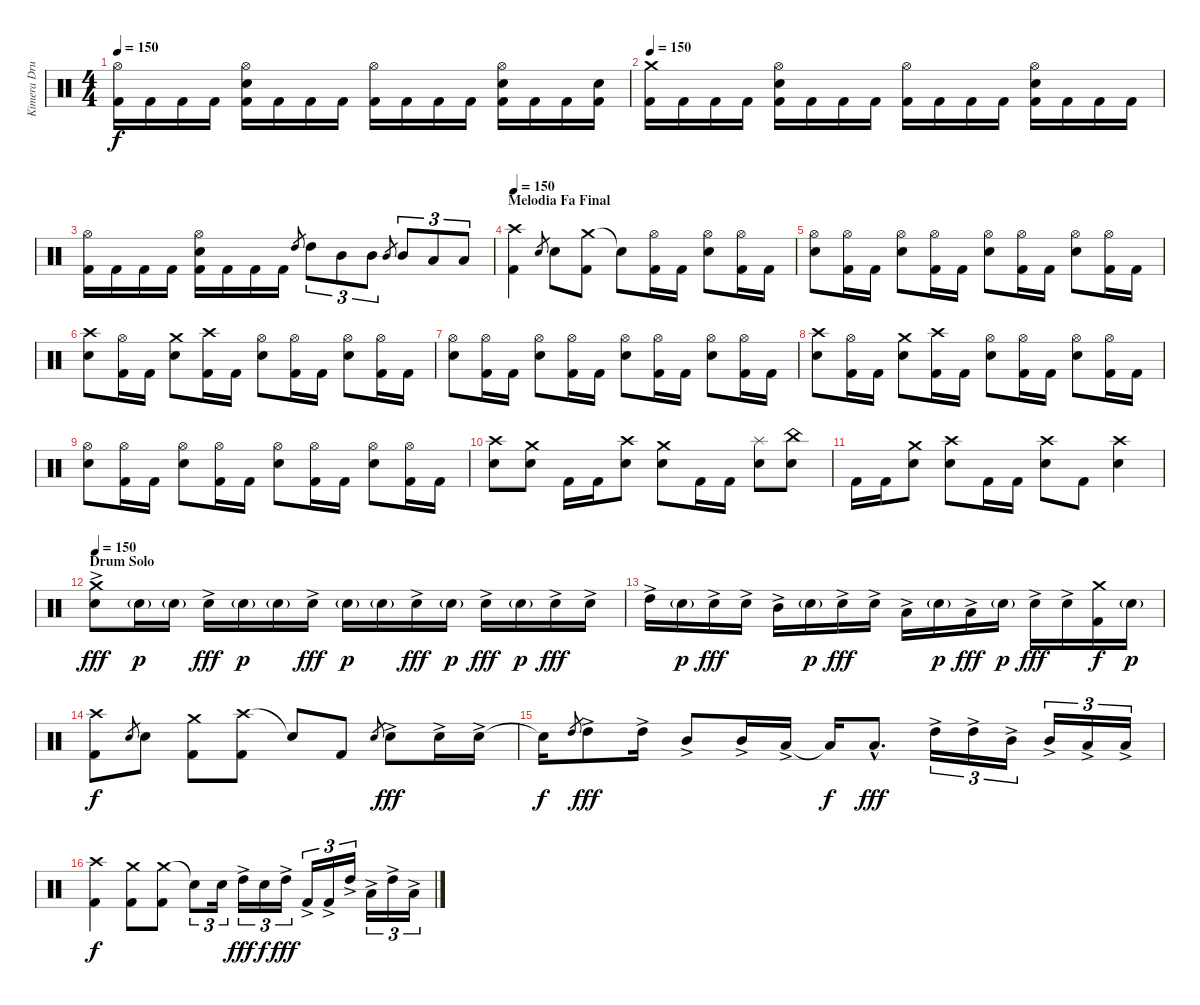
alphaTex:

\track ("Kimera Drummer" "Kimera Dru") {instrument percussion}
\staff {score}
\articulation defaults
\ts (4 4)
\tempo 150
\clef neutral
\ks c
("Hi-Hat (open)" "Kick (hit) 2").16{dy f} "Kick (hit) 2".16 "Kick (hit) 2".16 "Kick (hit) 2".16 ("Hi-Hat (open)" "Electric Snare (hit)" "Kick (hit) 2").16 "Kick (hit) 2".16 "Kick (hit) 2".16 "Kick (hit) 2".16 ("Hi-Hat (open)" "Kick (hit) 2").16 "Kick (hit) 2".16 "Kick (hit) 2".16 "Kick (hit) 2".16 ("Hi-Hat (open)" "Electric Snare (hit)" "Kick (hit) 2").16 "Kick (hit) 2".16 "Kick (hit) 2".16 ("Electric Snare (hit)" "Kick (hit) 2").16 |
\tempo 150
("Crash medium (hit)" "Kick (hit) 2").16 "Kick (hit) 2".16 "Kick (hit) 2".16 "Kick (hit) 2".16 ("Hi-Hat (open)" "Electric Snare (hit)" "Kick (hit) 2").16 "Kick (hit) 2".16 "Kick (hit) 2".16 "Kick (hit) 2".16 ("Hi-Hat (open)" "Kick (hit) 2").16 "Kick (hit) 2".16 "Kick (hit) 2".16 "Kick (hit) 2".16 ("Hi-Hat (open)" "Electric Snare (hit)" "Kick (hit) 2").16 "Kick (hit) 2".16 "Kick (hit) 2".16 "Kick (hit) 2".16 |
("Hi-Hat (open)" "Kick (hit) 2").16 "Kick (hit) 2".16 "Kick (hit) 2".16 "Kick (hit) 2".16 ("Hi-Hat (open)" "Electric Snare (hit)" "Kick (hit) 2").16 "Kick (hit) 2".16 "Kick (hit) 2".16 "Kick (hit) 2".16 "High Tom (hit)".8{gr} "High Tom (hit)".8{tu (3 2)} "Mid Tom (hit)".8{tu (3 2)} "Mid Tom (hit)".8{tu (3 2)} "Mid Tom (hit)".8{gr} "Mid Tom (hit)".8{tu (3 2)} "Low Floor Tom (hit)".8{tu (3 2)} "Low Floor Tom (hit)".8{tu (3 2)} |
\section ("" "Melodia Fa Final")
\tempo 150
("Crash high (hit)" "Kick (hit) 2").4 "Electric Snare (hit)".8{gr} "Electric Snare (hit)".8 ("Crash medium (hit)" "Kick (hit) 2").8 "Snare (hit)"{t}.8 ("Hi-Hat (open)" "Kick (hit) 2").16 "Kick (hit) 2".16 ("Hi-Hat (open)" "Electric Snare (hit)").8 ("Hi-Hat (open)" "Kick (hit) 2").16 "Kick (hit) 2".16 |
("Hi-Hat (open)" "Electric Snare (hit)").8 ("Hi-Hat (open)" "Kick (hit) 2").16 "Kick (hit) 2".16 ("Hi-Hat (open)" "Electric Snare (hit)").8 ("Hi-Hat (open)" "Kick (hit) 2").16 "Kick (hit) 2".16 ("Hi-Hat (open)" "Electric Snare (hit)").8 ("Hi-Hat (open)" "Kick (hit) 2").16 "Kick (hit) 2".16 ("Hi-Hat (open)" "Electric Snare (hit)").8 ("Hi-Hat (open)" "Kick (hit) 2").16 "Kick (hit) 2".16 |
("Crash high (hit)" "Electric Snare (hit)").8 ("Hi-Hat (open)" "Kick (hit) 2").16 "Kick (hit) 2".16 ("Crash medium (hit)" "Electric Snare (hit)").8 ("Crash high (hit)" "Kick (hit) 2").16 "Kick (hit) 2".16 ("Hi-Hat (open)" "Electric Snare (hit)").8 ("Hi-Hat (open)" "Kick (hit) 2").16 "Kick (hit) 2".16 ("Hi-Hat (open)" "Electric Snare (hit)").8 ("Hi-Hat (open)" "Kick (hit) 2").16 "Kick (hit) 2".16 |
("Hi-Hat (open)" "Electric Snare (hit)").8 ("Hi-Hat (open)" "Kick (hit) 2").16 "Kick (hit) 2".16 ("Hi-Hat (open)" "Electric Snare (hit)").8 ("Hi-Hat (open)" "Kick (hit) 2").16 "Kick (hit) 2".16 ("Hi-Hat (open)" "Electric Snare (hit)").8 ("Hi-Hat (open)" "Kick (hit) 2").16 "Kick (hit) 2".16 ("Hi-Hat (open)" "Electric Snare (hit)").8 ("Hi-Hat (open)" "Kick (hit) 2").16 "Kick (hit) 2".16 |
("Crash high (hit)" "Electric Snare (hit)").8 ("Hi-Hat (open)" "Kick (hit) 2").16 "Kick (hit) 2".16 ("Crash medium (hit)" "Electric Snare (hit)").8 ("Crash high (hit)" "Kick (hit) 2").16 "Kick (hit) 2".16 ("Hi-Hat (open)" "Electric Snare (hit)").8 ("Hi-Hat (open)" "Kick (hit) 2").16 "Kick (hit) 2".16 ("Hi-Hat (open)" "Electric Snare (hit)").8 ("Hi-Hat (open)" "Kick (hit) 2").16 "Kick (hit) 2".16 |
("Hi-Hat (open)" "Electric Snare (hit)").8 ("Hi-Hat (open)" "Kick (hit) 2").16 "Kick (hit) 2".16 ("Hi-Hat (open)" "Electric Snare (hit)").8 ("Hi-Hat (open)" "Kick (hit) 2").16 "Kick (hit) 2".16 ("Hi-Hat (open)" "Electric Snare (hit)").8 ("Hi-Hat (open)" "Kick (hit) 2").16 "Kick (hit) 2".16 ("Hi-Hat (open)" "Electric Snare (hit)").8 ("Hi-Hat (open)" "Kick (hit) 2").16 "Kick (hit) 2".16 |
("Crash high (hit)" "Electric Snare (hit)").8 ("Crash medium (hit)" "Electric Snare (hit)").8 "Kick (hit) 2".16 "Kick (hit) 2".16 ("Crash high (hit)" "Electric Snare (hit)").8 ("Crash medium (hit)" "Electric Snare (hit)").8 "Kick (hit) 2".16 "Kick (hit) 2".16 ("Splash (hit)" "Electric Snare (hit)").8 ("China (hit)" "Electric Snare (hit)").8 |
"Kick (hit) 2".16 "Kick (hit) 2".16 ("Crash medium (hit)" "Electric Snare (hit)").8 ("Crash high (hit)" "Electric Snare (hit)").8 "Kick (hit) 2".16 "Kick (hit) 2".16 ("Crash high (hit)" "Electric Snare (hit)").8 "Kick (hit) 2".8 ("Crash high (hit)" "Electric Snare (hit)").4 |
\section ("" "Drum Solo")
\tempo 150
("Crash medium (hit)" "Electric Snare (hit)"{ac}).8{dy fff} "Electric Snare (hit)"{g}.16{dy p} "Electric Snare (hit)"{g}.16 "Electric Snare (hit)"{ac}.16{dy fff} "Electric Snare (hit)"{g}.16{dy p} "Electric Snare (hit)"{g}.16 "Electric Snare (hit)"{ac}.16{dy fff} "Electric Snare (hit)"{g}.16{dy p} "Electric Snare (hit)"{g}.16 "Electric Snare (hit)"{ac}.16{dy fff} "Electric Snare (hit)"{g}.16{dy p} "Electric Snare (hit)"{ac}.16{dy fff} "Electric Snare (hit)"{g}.16{dy p} "Electric Snare (hit)"{ac}.16{dy fff} "Electric Snare (hit)"{ac}.16 |
"High Tom (hit)"{ac}.16 "Electric Snare (hit)"{g}.16{dy p} "Electric Snare (hit)"{ac}.16{dy fff} "Electric Snare (hit)"{ac}.16 "Mid Tom (hit)"{ac}.16 "Electric Snare (hit)"{g}.16{dy p} "Electric Snare (hit)"{ac}.16{dy fff} "Electric Snare (hit)"{ac}.16 "Low Tom (hit)"{ac}.16 "Electric Snare (hit)"{g}.16{dy p} "Low Tom (hit)"{ac}.16{dy fff} "Electric Snare (hit)"{g}.16{dy p} "Electric Snare (hit)"{ac}.16{dy fff} "Electric Snare (hit)"{ac}.16 ("Crash medium (hit)" "Kick (hit) 2").16{dy f} "Electric Snare (hit)"{g}.16{dy p} |
("Crash high (hit)" "Kick (hit) 2").8{dy f} "Electric Snare (hit)".8{gr} "Electric Snare (hit)".8 ("Crash medium (hit)" "Kick (hit) 2").8 ("Crash high (hit)" "Kick (hit) 2").8 "Snare (hit)"{t}.8 "Kick (hit) 2".8 "Electric Snare (hit)".8{gr} "Electric Snare (hit)"{ac}.8{dy fff} "Electric Snare (hit)"{ac}.16 "Electric Snare (hit)"{ac}.16 |
"Snare (hit)"{t}.16{dy f} "High Tom (hit)".8{gr} "High Tom (hit)"{ac}.8{dy fff} "High Tom (hit)"{ac}.16 "Mid Tom (hit)"{ac}.8 "Mid Tom (hit)"{ac}.16 "Low Tom (hit)"{ac}.16 "Low Tom (hit)"{t}.16{dy f} "Low Tom (hit)"{hac}.8{d dy fff} "High Tom (hit)"{ac}.16{tu (3 2)} "High Tom (hit)"{ac}.16{tu (3 2)} "Mid Tom (hit)"{ac}.16{tu (3 2)} "Mid Tom (hit)"{ac}.16{tu (3 2)} "Low Tom (hit)"{ac}.16{tu (3 2)} "Low Tom (hit)"{ac}.16{tu (3 2)} |
("Crash high (hit)" "Kick (hit) 2").4{dy f} ("Crash medium (hit)" "Kick (hit) 2").8 ("Crash medium (hit)" "Kick (hit) 2").8 "Snare (hit)"{t}.8{tu (3 2)} "Electric Snare (hit)".16{tu (3 2)} "High Tom (hit)"{ac}.16{tu (3 2) dy fff} "Electric Snare (hit)".16{tu (3 2) dy f} "High Tom (hit)"{ac}.16{tu (3 2) dy fff} "Kick (hit) 2"{ac}.16{tu (3 2)} "Kick (hit) 2"{ac}.16{tu (3 2)} "High Tom (hit)"{ac}.16{tu (3 2)} "Low Tom (hit)"{ac}.16{tu (3 2)} "High Tom (hit)"{ac}.16{tu (3 2)} "Low Tom (hit)"{ac}.16{tu (3 2)}
